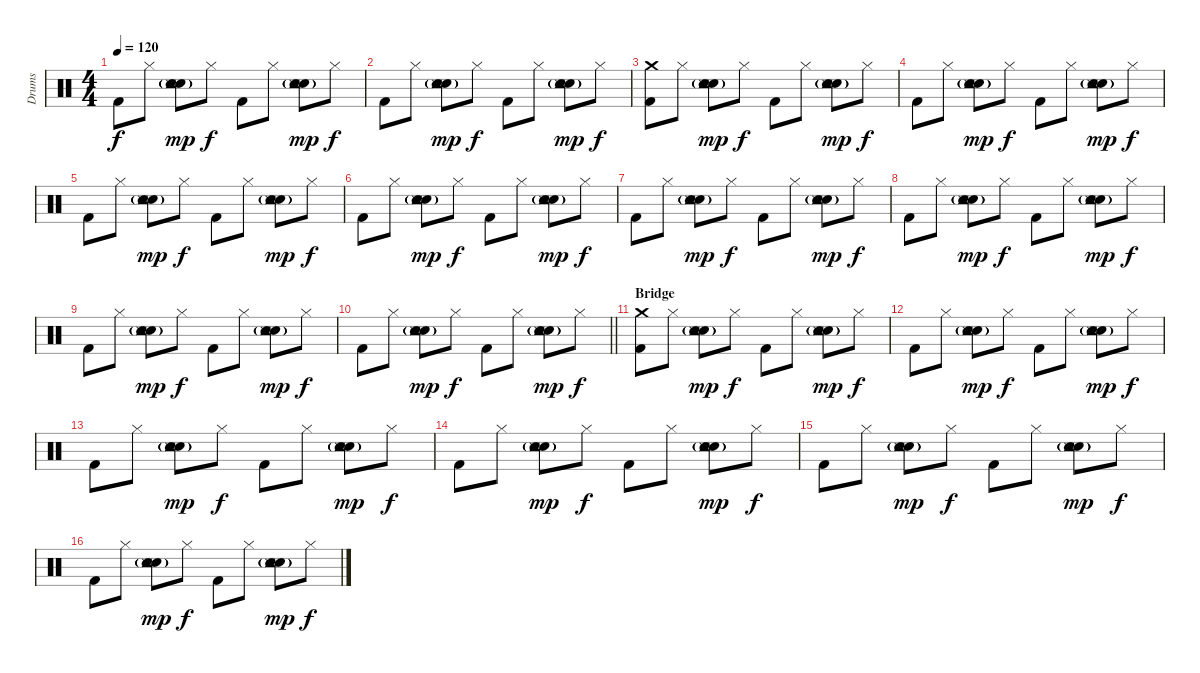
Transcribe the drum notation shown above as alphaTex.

\track ("Drums" "Drums") {instrument percussion}
\staff {score}
\articulation defaults
\ts (4 4)
\tempo 120
\clef neutral
\ks c "Kick (hit) 2".8{dy f} "Hi-Hat (closed)".8
("Snare (hit) 2"{g} "Tambourine (hit)"{g} "Electric Snare (hit)" "Snare (side stick) 3"{g}).8{dy mp} "Hi-Hat (closed)".8{dy f} "Kick (hit) 2".8 "Hi-Hat (closed)".8 ("Snare (hit) 2"{g} "Tambourine (hit)"{g} "Electric Snare (hit)" "Snare (side stick) 3"{g}).8{dy mp} "Hi-Hat (closed)".8{dy f} |
"Kick (hit) 2".8 "Hi-Hat (closed)".8 ("Snare (hit) 2"{g} "Tambourine (hit)"{g} "Electric Snare (hit)" "Snare (side stick) 3"{g}).8{dy mp} "Hi-Hat (closed)".8{dy f} "Kick (hit) 2".8 "Hi-Hat (closed)".8 ("Snare (hit) 2"{g} "Tambourine (hit)"{g} "Electric Snare (hit)" "Snare (side stick) 3"{g}).8{dy mp} "Hi-Hat (closed)".8{dy f} |
("Crash medium (hit)" "Kick (hit) 2").8 "Hi-Hat (closed)".8 ("Snare (hit) 2"{g} "Tambourine (hit)"{g} "Electric Snare (hit)" "Snare (side stick) 3"{g}).8{dy mp} "Hi-Hat (closed)".8{dy f} "Kick (hit) 2".8 "Hi-Hat (closed)".8 ("Snare (hit) 2"{g} "Tambourine (hit)"{g} "Electric Snare (hit)" "Snare (side stick) 3"{g}).8{dy mp} "Hi-Hat (closed)".8{dy f} |
"Kick (hit) 2".8 "Hi-Hat (closed)".8 ("Snare (hit) 2"{g} "Tambourine (hit)"{g} "Electric Snare (hit)" "Snare (side stick) 3"{g}).8{dy mp} "Hi-Hat (closed)".8{dy f} "Kick (hit) 2".8 "Hi-Hat (closed)".8 ("Snare (hit) 2"{g} "Tambourine (hit)"{g} "Electric Snare (hit)" "Snare (side stick) 3"{g}).8{dy mp} "Hi-Hat (closed)".8{dy f} |
"Kick (hit) 2".8 "Hi-Hat (closed)".8 ("Snare (hit) 2"{g} "Tambourine (hit)"{g} "Electric Snare (hit)" "Snare (side stick) 3"{g}).8{dy mp} "Hi-Hat (closed)".8{dy f} "Kick (hit) 2".8 "Hi-Hat (closed)".8 ("Snare (hit) 2"{g} "Tambourine (hit)"{g} "Electric Snare (hit)" "Snare (side stick) 3"{g}).8{dy mp} "Hi-Hat (closed)".8{dy f} |
"Kick (hit) 2".8 "Hi-Hat (closed)".8 ("Snare (hit) 2"{g} "Tambourine (hit)"{g} "Electric Snare (hit)" "Snare (side stick) 3"{g}).8{dy mp} "Hi-Hat (closed)".8{dy f} "Kick (hit) 2".8 "Hi-Hat (closed)".8 ("Snare (hit) 2"{g} "Tambourine (hit)"{g} "Electric Snare (hit)" "Snare (side stick) 3"{g}).8{dy mp} "Hi-Hat (closed)".8{dy f} |
"Kick (hit) 2".8 "Hi-Hat (closed)".8 ("Snare (hit) 2"{g} "Tambourine (hit)"{g} "Electric Snare (hit)" "Snare (side stick) 3"{g}).8{dy mp} "Hi-Hat (closed)".8{dy f} "Kick (hit) 2".8 "Hi-Hat (closed)".8 ("Snare (hit) 2"{g} "Tambourine (hit)"{g} "Electric Snare (hit)" "Snare (side stick) 3"{g}).8{dy mp} "Hi-Hat (closed)".8{dy f} |
"Kick (hit) 2".8 "Hi-Hat (closed)".8 ("Snare (hit) 2"{g} "Tambourine (hit)"{g} "Electric Snare (hit)" "Snare (side stick) 3"{g}).8{dy mp} "Hi-Hat (closed)".8{dy f} "Kick (hit) 2".8 "Hi-Hat (closed)".8 ("Snare (hit) 2"{g} "Tambourine (hit)"{g} "Electric Snare (hit)" "Snare (side stick) 3"{g}).8{dy mp} "Hi-Hat (closed)".8{dy f} |
"Kick (hit) 2".8 "Hi-Hat (closed)".8 ("Snare (hit) 2"{g} "Tambourine (hit)"{g} "Electric Snare (hit)" "Snare (side stick) 3"{g}).8{dy mp} "Hi-Hat (closed)".8{dy f} "Kick (hit) 2".8 "Hi-Hat (closed)".8 ("Snare (hit) 2"{g} "Tambourine (hit)"{g} "Electric Snare (hit)" "Snare (side stick) 3"{g}).8{dy mp} "Hi-Hat (closed)".8{dy f} |
\barLineRight lightlight "Kick (hit) 2".8 "Hi-Hat (closed)".8
("Snare (hit) 2"{g} "Tambourine (hit)"{g} "Electric Snare (hit)" "Snare (side stick) 3"{g}).8{dy mp} "Hi-Hat (closed)".8{dy f} "Kick (hit) 2".8 "Hi-Hat (closed)".8 ("Snare (hit) 2"{g} "Tambourine (hit)"{g} "Electric Snare (hit)" "Snare (side stick) 3"{g}).8{dy mp} "Hi-Hat (closed)".8{dy f} |
\section ("" "Bridge")
("Crash medium (hit)" "Kick (hit) 2").8 "Hi-Hat (closed)".8 ("Snare (hit) 2"{g} "Tambourine (hit)"{g} "Electric Snare (hit)" "Snare (side stick) 3"{g}).8{dy mp} "Hi-Hat (closed)".8{dy f} "Kick (hit) 2".8 "Hi-Hat (closed)".8 ("Snare (hit) 2"{g} "Tambourine (hit)"{g} "Electric Snare (hit)" "Snare (side stick) 3"{g}).8{dy mp} "Hi-Hat (closed)".8{dy f} |
"Kick (hit) 2".8 "Hi-Hat (closed)".8 ("Snare (hit) 2"{g} "Tambourine (hit)"{g} "Electric Snare (hit)" "Snare (side stick) 3"{g}).8{dy mp} "Hi-Hat (closed)".8{dy f} "Kick (hit) 2".8 "Hi-Hat (closed)".8 ("Snare (hit) 2"{g} "Tambourine (hit)"{g} "Electric Snare (hit)" "Snare (side stick) 3"{g}).8{dy mp} "Hi-Hat (closed)".8{dy f} |
"Kick (hit) 2".8 "Hi-Hat (closed)".8 ("Snare (hit) 2"{g} "Tambourine (hit)"{g} "Electric Snare (hit)" "Snare (side stick) 3"{g}).8{dy mp} "Hi-Hat (closed)".8{dy f} "Kick (hit) 2".8 "Hi-Hat (closed)".8 ("Snare (hit) 2"{g} "Tambourine (hit)"{g} "Electric Snare (hit)" "Snare (side stick) 3"{g}).8{dy mp} "Hi-Hat (closed)".8{dy f} |
"Kick (hit) 2".8 "Hi-Hat (closed)".8 ("Snare (hit) 2"{g} "Tambourine (hit)"{g} "Electric Snare (hit)" "Snare (side stick) 3"{g}).8{dy mp} "Hi-Hat (closed)".8{dy f} "Kick (hit) 2".8 "Hi-Hat (closed)".8 ("Snare (hit) 2"{g} "Tambourine (hit)"{g} "Electric Snare (hit)" "Snare (side stick) 3"{g}).8{dy mp} "Hi-Hat (closed)".8{dy f} |
"Kick (hit) 2".8 "Hi-Hat (closed)".8 ("Snare (hit) 2"{g} "Tambourine (hit)"{g} "Electric Snare (hit)" "Snare (side stick) 3"{g}).8{dy mp} "Hi-Hat (closed)".8{dy f} "Kick (hit) 2".8 "Hi-Hat (closed)".8 ("Snare (hit) 2"{g} "Tambourine (hit)"{g} "Electric Snare (hit)" "Snare (side stick) 3"{g}).8{dy mp} "Hi-Hat (closed)".8{dy f} |
"Kick (hit) 2".8 "Hi-Hat (closed)".8 ("Snare (hit) 2"{g} "Tambourine (hit)"{g} "Electric Snare (hit)" "Snare (side stick) 3"{g}).8{dy mp} "Hi-Hat (closed)".8{dy f} "Kick (hit) 2".8 "Hi-Hat (closed)".8 ("Snare (hit) 2"{g} "Tambourine (hit)"{g} "Electric Snare (hit)" "Snare (side stick) 3"{g}).8{dy mp} "Hi-Hat (closed)".8{dy f}
